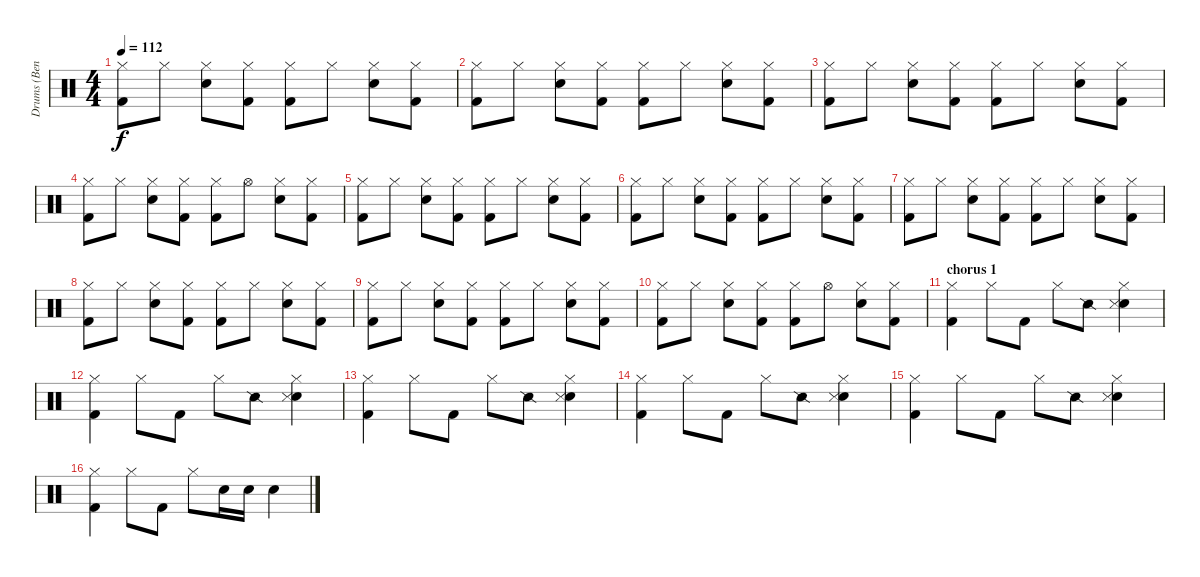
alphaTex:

\track ("Drums (Bengerg)" "Drums (Ben") {instrument percussion}
\staff {score}
\articulation defaults
\ts (4 4)
\tempo 112
\clef neutral
\ks c
("Hi-Hat (closed)" "Kick (hit) 2").8{dy f} "Hi-Hat (closed)".8 ("Hi-Hat (closed)" "Electric Snare (hit)").8 ("Hi-Hat (closed)" "Kick (hit) 2").8 ("Hi-Hat (closed)" "Kick (hit) 2").8 "Hi-Hat (closed)".8 ("Hi-Hat (closed)" "Electric Snare (hit)").8 ("Hi-Hat (closed)" "Kick (hit) 2").8 |
("Hi-Hat (closed)" "Kick (hit) 2").8 "Hi-Hat (closed)".8 ("Hi-Hat (closed)" "Electric Snare (hit)").8 ("Hi-Hat (closed)" "Kick (hit) 2").8 ("Hi-Hat (closed)" "Kick (hit) 2").8 "Hi-Hat (closed)".8 ("Hi-Hat (closed)" "Electric Snare (hit)").8 ("Hi-Hat (closed)" "Kick (hit) 2").8 |
("Hi-Hat (closed)" "Kick (hit) 2").8 "Hi-Hat (closed)".8 ("Hi-Hat (closed)" "Electric Snare (hit)").8 ("Hi-Hat (closed)" "Kick (hit) 2").8 ("Hi-Hat (closed)" "Kick (hit) 2").8 "Hi-Hat (closed)".8 ("Hi-Hat (closed)" "Electric Snare (hit)").8 ("Hi-Hat (closed)" "Kick (hit) 2").8 |
("Hi-Hat (closed)" "Kick (hit) 2").8 "Hi-Hat (closed)".8 ("Hi-Hat (closed)" "Electric Snare (hit)").8 ("Hi-Hat (closed)" "Kick (hit) 2").8 ("Hi-Hat (closed)" "Kick (hit) 2").8 "Hi-Hat (open)".8 ("Hi-Hat (closed)" "Electric Snare (hit)").8 ("Hi-Hat (closed)" "Kick (hit) 2").8 |
("Hi-Hat (closed)" "Kick (hit) 2").8 "Hi-Hat (closed)".8 ("Hi-Hat (closed)" "Electric Snare (hit)").8 ("Hi-Hat (closed)" "Kick (hit) 2").8 ("Hi-Hat (closed)" "Kick (hit) 2").8 "Hi-Hat (closed)".8 ("Hi-Hat (closed)" "Electric Snare (hit)").8 ("Hi-Hat (closed)" "Kick (hit) 2").8 |
("Hi-Hat (closed)" "Kick (hit) 2").8 "Hi-Hat (closed)".8 ("Hi-Hat (closed)" "Electric Snare (hit)").8 ("Hi-Hat (closed)" "Kick (hit) 2").8 ("Hi-Hat (closed)" "Kick (hit) 2").8 "Hi-Hat (closed)".8 ("Hi-Hat (closed)" "Electric Snare (hit)").8 ("Hi-Hat (closed)" "Kick (hit) 2").8 |
("Hi-Hat (closed)" "Kick (hit) 2").8 "Hi-Hat (closed)".8 ("Hi-Hat (closed)" "Electric Snare (hit)").8 ("Hi-Hat (closed)" "Kick (hit) 2").8 ("Hi-Hat (closed)" "Kick (hit) 2").8 "Hi-Hat (closed)".8 ("Hi-Hat (closed)" "Electric Snare (hit)").8 ("Hi-Hat (closed)" "Kick (hit) 2").8 |
("Hi-Hat (closed)" "Kick (hit) 2").8 "Hi-Hat (closed)".8 ("Hi-Hat (closed)" "Electric Snare (hit)").8 ("Hi-Hat (closed)" "Kick (hit) 2").8 ("Hi-Hat (closed)" "Kick (hit) 2").8 "Hi-Hat (closed)".8 ("Hi-Hat (closed)" "Electric Snare (hit)").8 ("Hi-Hat (closed)" "Kick (hit) 2").8 |
("Hi-Hat (closed)" "Kick (hit) 2").8 "Hi-Hat (closed)".8 ("Hi-Hat (closed)" "Electric Snare (hit)").8 ("Hi-Hat (closed)" "Kick (hit) 2").8 ("Hi-Hat (closed)" "Kick (hit) 2").8 "Hi-Hat (closed)".8 ("Hi-Hat (closed)" "Electric Snare (hit)").8 ("Hi-Hat (closed)" "Kick (hit) 2").8 |
("Hi-Hat (closed)" "Kick (hit) 2").8 "Hi-Hat (closed)".8 ("Hi-Hat (closed)" "Electric Snare (hit)").8 ("Hi-Hat (closed)" "Kick (hit) 2").8 ("Hi-Hat (closed)" "Kick (hit) 2").8 "Hi-Hat (open)".8 ("Hi-Hat (closed)" "Electric Snare (hit)").8 ("Hi-Hat (closed)" "Kick (hit) 2").8 |
\section ("" "chorus 1")
("Hi-Hat (closed)" "Kick (hit) 2").4 "Hi-Hat (closed)".8 "Kick (hit) 2".8 "Hi-Hat (closed)".8 "Snare (side stick) 2".8 ("Hi-Hat (closed)" "Electric Snare (hit)" "Metronome (hit)").4 |
("Hi-Hat (closed)" "Kick (hit) 2").4 "Hi-Hat (closed)".8 "Kick (hit) 2".8 "Hi-Hat (closed)".8 "Snare (side stick) 2".8 ("Hi-Hat (closed)" "Electric Snare (hit)" "Metronome (hit)").4 |
("Hi-Hat (closed)" "Kick (hit) 2").4 "Hi-Hat (closed)".8 "Kick (hit) 2".8 "Hi-Hat (closed)".8 "Snare (side stick) 2".8 ("Hi-Hat (closed)" "Electric Snare (hit)" "Metronome (hit)").4 |
("Hi-Hat (closed)" "Kick (hit) 2").4 "Hi-Hat (closed)".8 "Kick (hit) 2".8 "Hi-Hat (closed)".8 "Snare (side stick) 2".8 ("Hi-Hat (closed)" "Electric Snare (hit)" "Metronome (hit)").4 |
("Hi-Hat (closed)" "Kick (hit) 2").4 "Hi-Hat (closed)".8 "Kick (hit) 2".8 "Hi-Hat (closed)".8 "Snare (side stick) 2".8 ("Hi-Hat (closed)" "Electric Snare (hit)" "Metronome (hit)").4 |
("Hi-Hat (closed)" "Kick (hit) 2").4 "Hi-Hat (closed)".8 "Kick (hit) 2".8 "Hi-Hat (closed)".8 "Electric Snare (hit)".16 "Electric Snare (hit)".16 "Electric Snare (hit)".4
